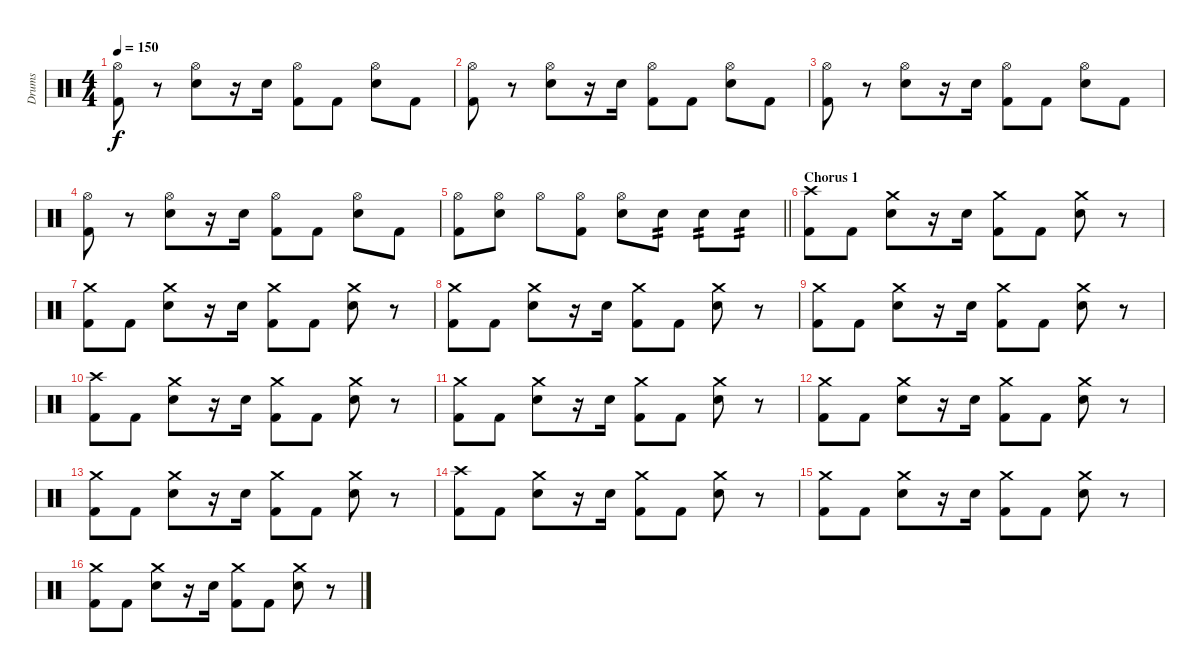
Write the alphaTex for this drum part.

\track ("Drums" "Drums") {instrument percussion}
\staff {score}
\articulation defaults
\ts (4 4)
\tempo 150
\clef neutral
\ks c
("Hi-Hat (open)" "Kick (hit) 2").8{dy f} r.8 ("Hi-Hat (open)" "Electric Snare (hit)").8 r.16 "Electric Snare (hit)".16 ("Hi-Hat (open)" "Kick (hit) 2").8 "Kick (hit) 2".8 ("Hi-Hat (open)" "Electric Snare (hit)").8 "Kick (hit) 2".8 |
("Hi-Hat (open)" "Kick (hit) 2").8 r.8 ("Hi-Hat (open)" "Electric Snare (hit)").8 r.16 "Electric Snare (hit)".16 ("Hi-Hat (open)" "Kick (hit) 2").8 "Kick (hit) 2".8 ("Hi-Hat (open)" "Electric Snare (hit)").8 "Kick (hit) 2".8 |
("Hi-Hat (open)" "Kick (hit) 2").8 r.8 ("Hi-Hat (open)" "Electric Snare (hit)").8 r.16 "Electric Snare (hit)".16 ("Hi-Hat (open)" "Kick (hit) 2").8 "Kick (hit) 2".8 ("Hi-Hat (open)" "Electric Snare (hit)").8 "Kick (hit) 2".8 |
("Hi-Hat (open)" "Kick (hit) 2").8 r.8 ("Hi-Hat (open)" "Electric Snare (hit)").8 r.16 "Electric Snare (hit)".16 ("Hi-Hat (open)" "Kick (hit) 2").8 "Kick (hit) 2".8 ("Hi-Hat (open)" "Electric Snare (hit)").8 "Kick (hit) 2".8 |
\barLineRight lightlight
("Hi-Hat (open)" "Kick (hit) 2").8 ("Hi-Hat (open)" "Electric Snare (hit)").8 "Hi-Hat (open)".8 ("Hi-Hat (open)" "Kick (hit) 2").8 ("Hi-Hat (open)" "Electric Snare (hit)").8 "Electric Snare (hit)".8{tp 2} "Electric Snare (hit)".8{tp 2} "Electric Snare (hit)".8{tp 2} |
\section ("" "Chorus 1")
("Crash high (hit)" "Kick (hit) 2").8 "Kick (hit) 2".8 ("Crash medium (hit)" "Electric Snare (hit)").8 r.16 "Electric Snare (hit)".16 ("Crash medium (hit)" "Kick (hit) 2").8 "Kick (hit) 2".8 ("Crash medium (hit)" "Electric Snare (hit)").8 r.8 |
("Crash medium (hit)" "Kick (hit) 2").8 "Kick (hit) 2".8 ("Crash medium (hit)" "Electric Snare (hit)").8 r.16 "Electric Snare (hit)".16 ("Crash medium (hit)" "Kick (hit) 2").8 "Kick (hit) 2".8 ("Crash medium (hit)" "Electric Snare (hit)").8 r.8 |
("Crash medium (hit)" "Kick (hit) 2").8 "Kick (hit) 2".8 ("Crash medium (hit)" "Electric Snare (hit)").8 r.16 "Electric Snare (hit)".16 ("Crash medium (hit)" "Kick (hit) 2").8 "Kick (hit) 2".8 ("Crash medium (hit)" "Electric Snare (hit)").8 r.8 |
("Crash medium (hit)" "Kick (hit) 2").8 "Kick (hit) 2".8 ("Crash medium (hit)" "Electric Snare (hit)").8 r.16 "Electric Snare (hit)".16 ("Crash medium (hit)" "Kick (hit) 2").8 "Kick (hit) 2".8 ("Crash medium (hit)" "Electric Snare (hit)").8 r.8 |
("Crash high (hit)" "Kick (hit) 2").8 "Kick (hit) 2".8 ("Crash medium (hit)" "Electric Snare (hit)").8 r.16 "Electric Snare (hit)".16 ("Crash medium (hit)" "Kick (hit) 2").8 "Kick (hit) 2".8 ("Crash medium (hit)" "Electric Snare (hit)").8 r.8 |
("Crash medium (hit)" "Kick (hit) 2").8 "Kick (hit) 2".8 ("Crash medium (hit)" "Electric Snare (hit)").8 r.16 "Electric Snare (hit)".16 ("Crash medium (hit)" "Kick (hit) 2").8 "Kick (hit) 2".8 ("Crash medium (hit)" "Electric Snare (hit)").8 r.8 |
("Crash medium (hit)" "Kick (hit) 2").8 "Kick (hit) 2".8 ("Crash medium (hit)" "Electric Snare (hit)").8 r.16 "Electric Snare (hit)".16 ("Crash medium (hit)" "Kick (hit) 2").8 "Kick (hit) 2".8 ("Crash medium (hit)" "Electric Snare (hit)").8 r.8 |
("Crash medium (hit)" "Kick (hit) 2").8 "Kick (hit) 2".8 ("Crash medium (hit)" "Electric Snare (hit)").8 r.16 "Electric Snare (hit)".16 ("Crash medium (hit)" "Kick (hit) 2").8 "Kick (hit) 2".8 ("Crash medium (hit)" "Electric Snare (hit)").8 r.8 |
("Crash high (hit)" "Kick (hit) 2").8 "Kick (hit) 2".8 ("Crash medium (hit)" "Electric Snare (hit)").8 r.16 "Electric Snare (hit)".16 ("Crash medium (hit)" "Kick (hit) 2").8 "Kick (hit) 2".8 ("Crash medium (hit)" "Electric Snare (hit)").8 r.8 |
("Crash medium (hit)" "Kick (hit) 2").8 "Kick (hit) 2".8 ("Crash medium (hit)" "Electric Snare (hit)").8 r.16 "Electric Snare (hit)".16 ("Crash medium (hit)" "Kick (hit) 2").8 "Kick (hit) 2".8 ("Crash medium (hit)" "Electric Snare (hit)").8 r.8 |
("Crash medium (hit)" "Kick (hit) 2").8 "Kick (hit) 2".8 ("Crash medium (hit)" "Electric Snare (hit)").8 r.16 "Electric Snare (hit)".16 ("Crash medium (hit)" "Kick (hit) 2").8 "Kick (hit) 2".8 ("Crash medium (hit)" "Electric Snare (hit)").8 r.8
